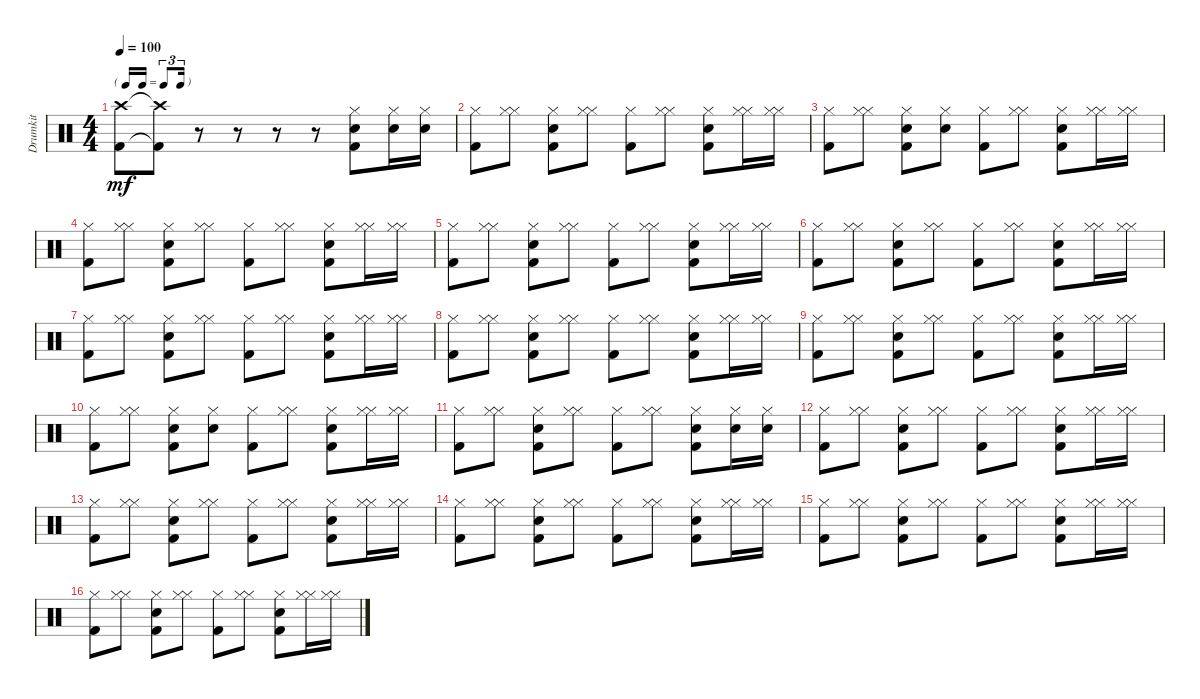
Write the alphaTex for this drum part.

\track ("Drumkit" "Drumkit") {instrument percussion}
\staff {score}
\articulation defaults
\ts (4 4)
\tf triplet16th
\tempo 100
\clef neutral
\ks c
("Crash high (hit)" "Kick (hit) 2").8{dy mf} ("Crash high (hit)"{t} "Kick (hit) 2"{t}).8 r.8 r.8 r.8 r.8 ("Hi-Hat (closed)" "Snare (hit) 2" "Kick (hit) 2").8 ("Snare (hit) 2" "Hi-Hat (closed)").16 ("Snare (hit) 2" "Hi-Hat (closed)").16 |
("Hi-Hat (closed)" "Kick (hit) 2").8 ("Hi-Hat (closed)" "Hi-Hat (closed)").8 ("Snare (hit) 2" "Hi-Hat (closed)" "Kick (hit) 2").8 ("Hi-Hat (closed)" "Hi-Hat (closed)").8 ("Hi-Hat (closed)" "Kick (hit) 2").8 ("Hi-Hat (closed)" "Hi-Hat (closed)").8 ("Snare (hit) 2" "Hi-Hat (closed)" "Kick (hit) 2").8 ("Hi-Hat (closed)" "Hi-Hat (closed)").16 ("Hi-Hat (closed)" "Hi-Hat (closed)").16 |
("Hi-Hat (closed)" "Kick (hit) 2").8 ("Hi-Hat (closed)" "Hi-Hat (closed)").8 ("Hi-Hat (closed)" "Snare (hit) 2" "Kick (hit) 2").8 ("Snare (hit) 2" "Hi-Hat (closed)").8 ("Hi-Hat (closed)" "Kick (hit) 2").8 ("Hi-Hat (closed)" "Hi-Hat (closed)").8 ("Snare (hit) 2" "Hi-Hat (closed)" "Kick (hit) 2").8 ("Hi-Hat (closed)" "Hi-Hat (closed)").16 ("Hi-Hat (closed)" "Hi-Hat (closed)").16 |
("Hi-Hat (closed)" "Kick (hit) 2").8 ("Hi-Hat (closed)" "Hi-Hat (closed)").8 ("Snare (hit) 2" "Hi-Hat (closed)" "Kick (hit) 2").8 ("Hi-Hat (closed)" "Hi-Hat (closed)").8 ("Hi-Hat (closed)" "Kick (hit) 2").8 ("Hi-Hat (closed)" "Hi-Hat (closed)").8 ("Snare (hit) 2" "Hi-Hat (closed)" "Kick (hit) 2").8 ("Hi-Hat (closed)" "Hi-Hat (closed)").16 ("Hi-Hat (closed)" "Hi-Hat (closed)").16 |
("Hi-Hat (closed)" "Kick (hit) 2").8 ("Hi-Hat (closed)" "Hi-Hat (closed)").8 ("Snare (hit) 2" "Hi-Hat (closed)" "Kick (hit) 2").8 ("Hi-Hat (closed)" "Hi-Hat (closed)").8 ("Hi-Hat (closed)" "Kick (hit) 2").8 ("Hi-Hat (closed)" "Hi-Hat (closed)").8 ("Snare (hit) 2" "Hi-Hat (closed)" "Kick (hit) 2").8 ("Hi-Hat (closed)" "Hi-Hat (closed)").16 ("Hi-Hat (closed)" "Hi-Hat (closed)").16 |
("Hi-Hat (closed)" "Kick (hit) 2").8 ("Hi-Hat (closed)" "Hi-Hat (closed)").8 ("Snare (hit) 2" "Hi-Hat (closed)" "Kick (hit) 2").8 ("Hi-Hat (closed)" "Hi-Hat (closed)").8 ("Hi-Hat (closed)" "Kick (hit) 2").8 ("Hi-Hat (closed)" "Hi-Hat (closed)").8 ("Snare (hit) 2" "Hi-Hat (closed)" "Kick (hit) 2").8 ("Hi-Hat (closed)" "Hi-Hat (closed)").16 ("Hi-Hat (closed)" "Hi-Hat (closed)").16 |
("Hi-Hat (closed)" "Kick (hit) 2").8 ("Hi-Hat (closed)" "Hi-Hat (closed)").8 ("Snare (hit) 2" "Hi-Hat (closed)" "Kick (hit) 2").8 ("Hi-Hat (closed)" "Hi-Hat (closed)").8 ("Hi-Hat (closed)" "Kick (hit) 2").8 ("Hi-Hat (closed)" "Hi-Hat (closed)").8 ("Snare (hit) 2" "Hi-Hat (closed)" "Kick (hit) 2").8 ("Hi-Hat (closed)" "Hi-Hat (closed)").16 ("Hi-Hat (closed)" "Hi-Hat (closed)").16 |
("Hi-Hat (closed)" "Kick (hit) 2").8 ("Hi-Hat (closed)" "Hi-Hat (closed)").8 ("Snare (hit) 2" "Hi-Hat (closed)" "Kick (hit) 2").8 ("Hi-Hat (closed)" "Hi-Hat (closed)").8 ("Hi-Hat (closed)" "Kick (hit) 2").8 ("Hi-Hat (closed)" "Hi-Hat (closed)").8 ("Snare (hit) 2" "Hi-Hat (closed)" "Kick (hit) 2").8 ("Hi-Hat (closed)" "Hi-Hat (closed)").16 ("Hi-Hat (closed)" "Hi-Hat (closed)").16 |
("Hi-Hat (closed)" "Kick (hit) 2").8 ("Hi-Hat (closed)" "Hi-Hat (closed)").8 ("Snare (hit) 2" "Hi-Hat (closed)" "Kick (hit) 2").8 ("Hi-Hat (closed)" "Hi-Hat (closed)").8 ("Hi-Hat (closed)" "Kick (hit) 2").8 ("Hi-Hat (closed)" "Hi-Hat (closed)").8 ("Snare (hit) 2" "Hi-Hat (closed)" "Kick (hit) 2").8 ("Hi-Hat (closed)" "Hi-Hat (closed)").16 ("Hi-Hat (closed)" "Hi-Hat (closed)").16 |
("Hi-Hat (closed)" "Kick (hit) 2").8 ("Hi-Hat (closed)" "Hi-Hat (closed)").8 ("Hi-Hat (closed)" "Snare (hit) 2" "Kick (hit) 2").8 ("Snare (hit) 2" "Hi-Hat (closed)").8 ("Hi-Hat (closed)" "Kick (hit) 2").8 ("Hi-Hat (closed)" "Hi-Hat (closed)").8 ("Snare (hit) 2" "Hi-Hat (closed)" "Kick (hit) 2").8 ("Hi-Hat (closed)" "Hi-Hat (closed)").16 ("Hi-Hat (closed)" "Hi-Hat (closed)").16 |
("Hi-Hat (closed)" "Kick (hit) 2").8 ("Hi-Hat (closed)" "Hi-Hat (closed)").8 ("Snare (hit) 2" "Hi-Hat (closed)" "Kick (hit) 2").8 ("Hi-Hat (closed)" "Hi-Hat (closed)").8 ("Hi-Hat (closed)" "Kick (hit) 2").8 ("Hi-Hat (closed)" "Hi-Hat (closed)").8 ("Hi-Hat (closed)" "Snare (hit) 2" "Kick (hit) 2").8 ("Snare (hit) 2" "Hi-Hat (closed)").16 ("Snare (hit) 2" "Hi-Hat (closed)").16 |
("Hi-Hat (closed)" "Kick (hit) 2").8 ("Hi-Hat (closed)" "Hi-Hat (closed)").8 ("Snare (hit) 2" "Hi-Hat (closed)" "Kick (hit) 2").8 ("Hi-Hat (closed)" "Hi-Hat (closed)").8 ("Hi-Hat (closed)" "Kick (hit) 2").8 ("Hi-Hat (closed)" "Hi-Hat (closed)").8 ("Snare (hit) 2" "Hi-Hat (closed)" "Kick (hit) 2").8 ("Hi-Hat (closed)" "Hi-Hat (closed)").16 ("Hi-Hat (closed)" "Hi-Hat (closed)").16 |
("Hi-Hat (closed)" "Kick (hit) 2").8 ("Hi-Hat (closed)" "Hi-Hat (closed)").8 ("Snare (hit) 2" "Hi-Hat (closed)" "Kick (hit) 2").8 ("Hi-Hat (closed)" "Hi-Hat (closed)").8 ("Hi-Hat (closed)" "Kick (hit) 2").8 ("Hi-Hat (closed)" "Hi-Hat (closed)").8 ("Snare (hit) 2" "Hi-Hat (closed)" "Kick (hit) 2").8 ("Hi-Hat (closed)" "Hi-Hat (closed)").16 ("Hi-Hat (closed)" "Hi-Hat (closed)").16 |
("Hi-Hat (closed)" "Kick (hit) 2").8 ("Hi-Hat (closed)" "Hi-Hat (closed)").8 ("Snare (hit) 2" "Hi-Hat (closed)" "Kick (hit) 2").8 ("Hi-Hat (closed)" "Hi-Hat (closed)").8 ("Hi-Hat (closed)" "Kick (hit) 2").8 ("Hi-Hat (closed)" "Hi-Hat (closed)").8 ("Snare (hit) 2" "Hi-Hat (closed)" "Kick (hit) 2").8 ("Hi-Hat (closed)" "Hi-Hat (closed)").16 ("Hi-Hat (closed)" "Hi-Hat (closed)").16 |
("Hi-Hat (closed)" "Kick (hit) 2").8 ("Hi-Hat (closed)" "Hi-Hat (closed)").8 ("Snare (hit) 2" "Hi-Hat (closed)" "Kick (hit) 2").8 ("Hi-Hat (closed)" "Hi-Hat (closed)").8 ("Hi-Hat (closed)" "Kick (hit) 2").8 ("Hi-Hat (closed)" "Hi-Hat (closed)").8 ("Snare (hit) 2" "Hi-Hat (closed)" "Kick (hit) 2").8 ("Hi-Hat (closed)" "Hi-Hat (closed)").16 ("Hi-Hat (closed)" "Hi-Hat (closed)").16 |
("Hi-Hat (closed)" "Kick (hit) 2").8 ("Hi-Hat (closed)" "Hi-Hat (closed)").8 ("Snare (hit) 2" "Hi-Hat (closed)" "Kick (hit) 2").8 ("Hi-Hat (closed)" "Hi-Hat (closed)").8 ("Hi-Hat (closed)" "Kick (hit) 2").8 ("Hi-Hat (closed)" "Hi-Hat (closed)").8 ("Snare (hit) 2" "Hi-Hat (closed)" "Kick (hit) 2").8 ("Hi-Hat (closed)" "Hi-Hat (closed)").16 ("Hi-Hat (closed)" "Hi-Hat (closed)").16
